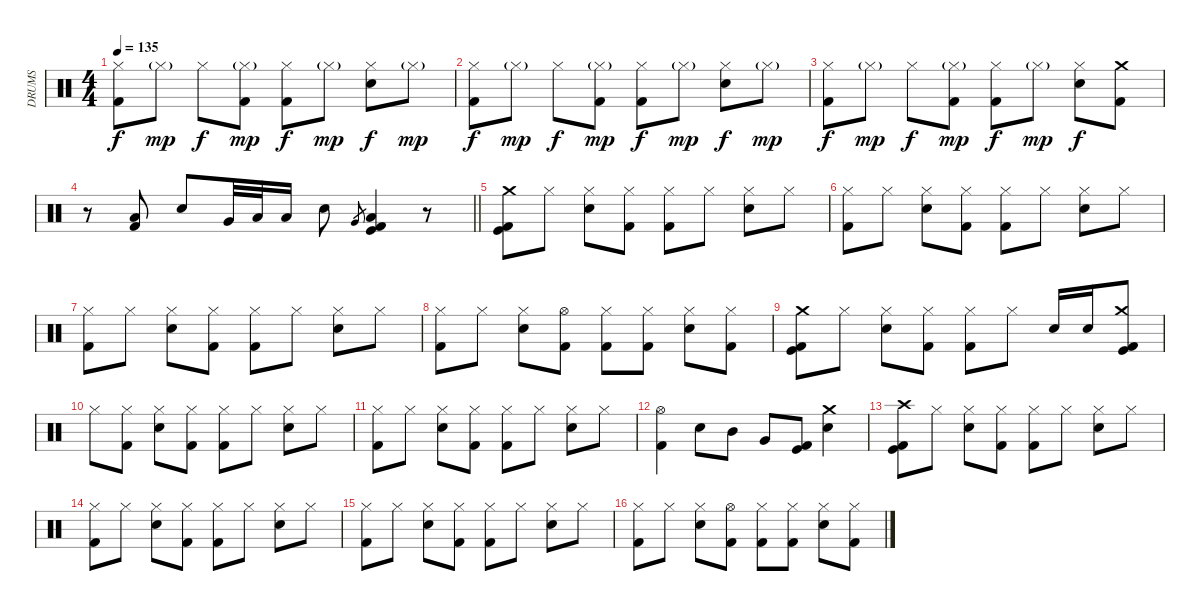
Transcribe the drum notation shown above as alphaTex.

\track ("DRUMS" "DRUMS") {instrument percussion}
\staff {score}
\articulation defaults
\ts (4 4)
\tempo 135
\clef neutral
\ks c
("Hi-Hat (closed)" "Kick (hit) 2").8{dy f} "Hi-Hat (closed)"{g}.8{dy mp} "Hi-Hat (closed)".8{dy f} ("Hi-Hat (closed)"{g} "Kick (hit) 2").8{dy mp} ("Hi-Hat (closed)" "Kick (hit) 2").8{dy f} "Hi-Hat (closed)"{g}.8{dy mp} ("Hi-Hat (closed)" "Electric Snare (hit)").8{dy f} "Hi-Hat (closed)"{g}.8{dy mp} |
("Hi-Hat (closed)" "Kick (hit) 2").8{dy f} "Hi-Hat (closed)"{g}.8{dy mp} "Hi-Hat (closed)".8{dy f} ("Hi-Hat (closed)"{g} "Kick (hit) 2").8{dy mp} ("Hi-Hat (closed)" "Kick (hit) 2").8{dy f} "Hi-Hat (closed)"{g}.8{dy mp} ("Hi-Hat (closed)" "Electric Snare (hit)").8{dy f} "Hi-Hat (closed)"{g}.8{dy mp} |
("Hi-Hat (closed)" "Kick (hit) 2").8{dy f} "Hi-Hat (closed)"{g}.8{dy mp} "Hi-Hat (closed)".8{dy f} ("Hi-Hat (closed)"{g} "Kick (hit) 2").8{dy mp} ("Hi-Hat (closed)" "Kick (hit) 2").8{dy f} "Hi-Hat (closed)"{g}.8{dy mp} ("Hi-Hat (closed)" "Electric Snare (hit)").8{dy f} ("Crash medium (hit)" "Kick (hit) 2").8 |
\barLineRight lightlight
r.8 ("Low Tom (hit)" "Kick (hit) 2").8 "Electric Snare (hit)".8 "Very Low Tom (hit)".32 "Low Tom (hit)".32 "Low Floor Tom (hit)".16 "Electric Snare (hit)".8 "Very Low Tom (hit)".8{gr} ("Low Floor Tom (hit)" "Kick (hit)" "Kick (hit) 2").4{volume 10} r.8 |
("Crash medium (hit)" "Kick (hit) 2" "Kick (hit)").8 "Hi-Hat (closed)".8 ("Hi-Hat (closed)" "Electric Snare (hit)").8 ("Hi-Hat (closed)" "Kick (hit) 2").8 ("Hi-Hat (closed)" "Kick (hit) 2").8 "Hi-Hat (closed)".8 ("Hi-Hat (closed)" "Electric Snare (hit)").8 "Hi-Hat (closed)".8 |
("Hi-Hat (closed)" "Kick (hit) 2").8 "Hi-Hat (closed)".8 ("Hi-Hat (closed)" "Electric Snare (hit)").8 ("Hi-Hat (closed)" "Kick (hit) 2").8 ("Hi-Hat (closed)" "Kick (hit) 2").8 "Hi-Hat (closed)".8 ("Hi-Hat (closed)" "Electric Snare (hit)").8 "Hi-Hat (closed)".8 |
("Hi-Hat (closed)" "Kick (hit) 2").8 "Hi-Hat (closed)".8 ("Hi-Hat (closed)" "Electric Snare (hit)").8 ("Hi-Hat (closed)" "Kick (hit) 2").8 ("Hi-Hat (closed)" "Kick (hit) 2").8 "Hi-Hat (closed)".8 ("Hi-Hat (closed)" "Electric Snare (hit)").8 "Hi-Hat (closed)".8 |
("Hi-Hat (closed)" "Kick (hit) 2").8 "Hi-Hat (closed)".8 ("Hi-Hat (closed)" "Electric Snare (hit)").8 ("Hi-Hat (open)" "Kick (hit) 2").8 ("Hi-Hat (closed)" "Kick (hit) 2").8 ("Hi-Hat (closed)" "Kick (hit) 2").8 ("Hi-Hat (closed)" "Electric Snare (hit)").8 ("Hi-Hat (closed)" "Kick (hit) 2").8 |
("Crash medium (hit)" "Kick (hit) 2" "Kick (hit)").8 "Hi-Hat (closed)".8 ("Hi-Hat (closed)" "Electric Snare (hit)").8 ("Hi-Hat (closed)" "Kick (hit) 2").8 ("Hi-Hat (closed)" "Kick (hit) 2").8 "Hi-Hat (closed)".8 "Electric Snare (hit)".16 "Electric Snare (hit)".16 ("Crash medium (hit)" "Kick (hit) 2" "Kick (hit)").8 |
"Hi-Hat (closed)".8 ("Hi-Hat (closed)" "Kick (hit) 2").8 ("Hi-Hat (closed)" "Electric Snare (hit)").8 ("Hi-Hat (closed)" "Kick (hit) 2").8 ("Hi-Hat (closed)" "Kick (hit) 2").8 "Hi-Hat (closed)".8 ("Hi-Hat (closed)" "Electric Snare (hit)").8 "Hi-Hat (closed)".8 |
("Hi-Hat (closed)" "Kick (hit) 2").8 "Hi-Hat (closed)".8 ("Hi-Hat (closed)" "Electric Snare (hit)").8 ("Hi-Hat (closed)" "Kick (hit) 2").8 ("Hi-Hat (closed)" "Kick (hit) 2").8 "Hi-Hat (closed)".8 ("Hi-Hat (closed)" "Electric Snare (hit)").8 "Hi-Hat (closed)".8 |
("Hi-Hat (open)" "Kick (hit) 2").4 "Electric Snare (hit)".8 "Mid Tom (hit)".8 "Very Low Tom (hit)".8 ("Kick (hit) 2" "Kick (hit)").8 ("Crash medium (hit)" "Electric Snare (hit)").4 |
("Crash high (hit)" "Kick (hit) 2" "Kick (hit)").8 "Hi-Hat (closed)".8 ("Hi-Hat (closed)" "Electric Snare (hit)").8 ("Hi-Hat (closed)" "Kick (hit) 2").8 ("Hi-Hat (closed)" "Kick (hit) 2").8 "Hi-Hat (closed)".8 ("Hi-Hat (closed)" "Electric Snare (hit)").8 "Hi-Hat (closed)".8 |
("Hi-Hat (closed)" "Kick (hit) 2").8 "Hi-Hat (closed)".8 ("Hi-Hat (closed)" "Electric Snare (hit)").8 ("Hi-Hat (closed)" "Kick (hit) 2").8 ("Hi-Hat (closed)" "Kick (hit) 2").8 "Hi-Hat (closed)".8 ("Hi-Hat (closed)" "Electric Snare (hit)").8 "Hi-Hat (closed)".8 |
("Hi-Hat (closed)" "Kick (hit) 2").8 "Hi-Hat (closed)".8 ("Hi-Hat (closed)" "Electric Snare (hit)").8 ("Hi-Hat (closed)" "Kick (hit) 2").8 ("Hi-Hat (closed)" "Kick (hit) 2").8 "Hi-Hat (closed)".8 ("Hi-Hat (closed)" "Electric Snare (hit)").8 "Hi-Hat (closed)".8 |
("Hi-Hat (closed)" "Kick (hit) 2").8 "Hi-Hat (closed)".8 ("Hi-Hat (closed)" "Electric Snare (hit)").8 ("Hi-Hat (open)" "Kick (hit) 2").8 ("Hi-Hat (closed)" "Kick (hit) 2").8 ("Hi-Hat (closed)" "Kick (hit) 2").8 ("Hi-Hat (closed)" "Electric Snare (hit)").8 ("Hi-Hat (closed)" "Kick (hit) 2").8
